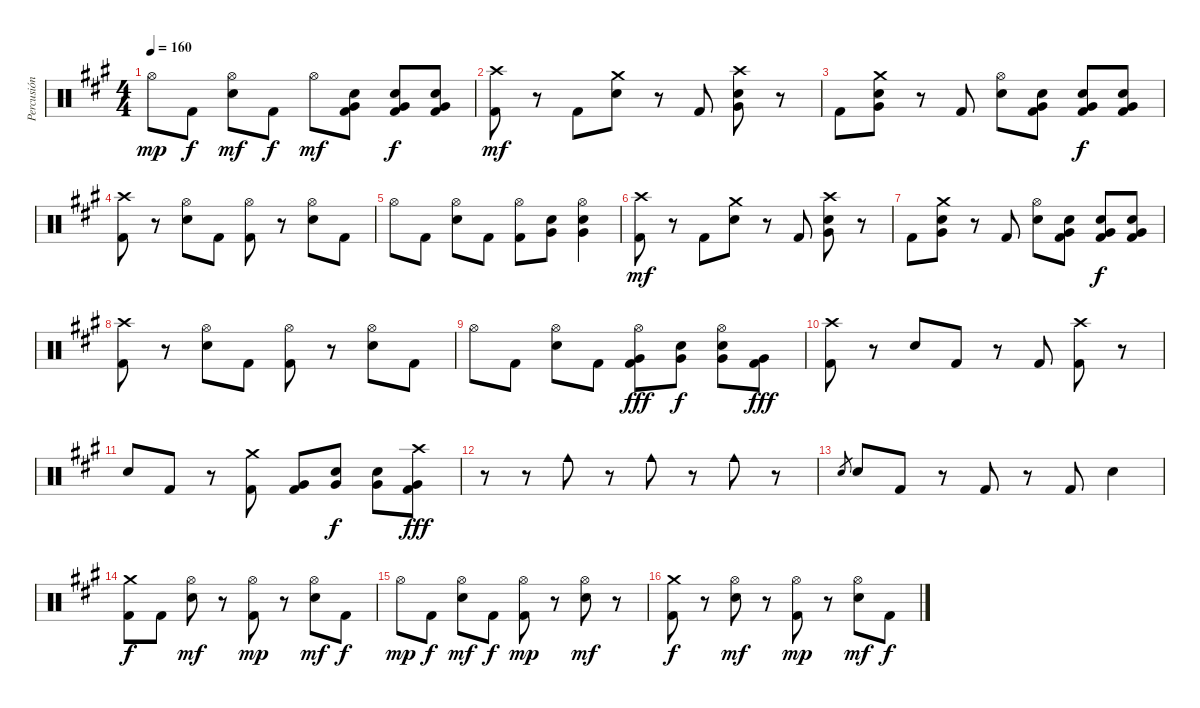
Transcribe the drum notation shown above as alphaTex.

\track ("Percusión" "Percusión") {instrument percussion}
\staff {score}
\articulation defaults
\ts (4 4)
\tempo 160
\clef neutral
\ks a "Hi-Hat (open)".8{dy mp} "Kick (hit) 2".8{dy f}
("Hi-Hat (open)" "Electric Snare (hit)").8{dy mf} "Kick (hit) 2".8{dy f} "Hi-Hat (open)".8{dy mf} ("Very Low Tom (hit)" "Electric Snare (hit)" "Kick (hit) 2").8 ("Very Low Tom (hit)" "Electric Snare (hit)" "Kick (hit) 2").8{dy f} ("Very Low Tom (hit)" "Electric Snare (hit)" "Kick (hit) 2").8 |
("Crash high (hit)" "Kick (hit) 2").8{dy mf} r.8 "Kick (hit) 2".8 ("Crash medium (hit)" "Electric Snare (hit)").8 r.8 "Kick (hit) 2".8 ("Crash high (hit)" "Very Low Tom (hit)" "Electric Snare (hit)").8 r.8 |
"Kick (hit) 2".8 ("Crash medium (hit)" "Very Low Tom (hit)" "Electric Snare (hit)").8 r.8 "Kick (hit) 2".8 ("Hi-Hat (open)" "Electric Snare (hit)").8 ("Very Low Tom (hit)" "Electric Snare (hit)" "Kick (hit) 2").8 ("Very Low Tom (hit)" "Electric Snare (hit)" "Kick (hit) 2").8{dy f} ("Very Low Tom (hit)" "Electric Snare (hit)" "Kick (hit) 2").8 |
("Crash high (hit)" "Kick (hit) 2").8 r.8 ("Hi-Hat (open)" "Electric Snare (hit)").8 "Kick (hit) 2".8 ("Hi-Hat (open)" "Kick (hit) 2").8 r.8 ("Hi-Hat (open)" "Electric Snare (hit)").8 "Kick (hit) 2".8 |
"Hi-Hat (open)".8 "Kick (hit) 2".8 ("Hi-Hat (open)" "Electric Snare (hit)").8 "Kick (hit) 2".8 ("Hi-Hat (open)" "Kick (hit) 2").8 ("Very Low Tom (hit)" "Electric Snare (hit)").8 ("Very Low Tom (hit)" "Hi-Hat (open)" "Electric Snare (hit)").4 |
("Crash high (hit)" "Kick (hit) 2").8{dy mf} r.8 "Kick (hit) 2".8 ("Crash medium (hit)" "Electric Snare (hit)").8 r.8 "Kick (hit) 2".8 ("Crash high (hit)" "Very Low Tom (hit)" "Electric Snare (hit)").8 r.8 |
"Kick (hit) 2".8 ("Crash medium (hit)" "Very Low Tom (hit)" "Electric Snare (hit)").8 r.8 "Kick (hit) 2".8 ("Hi-Hat (open)" "Electric Snare (hit)").8 ("Very Low Tom (hit)" "Electric Snare (hit)" "Kick (hit) 2").8 ("Very Low Tom (hit)" "Electric Snare (hit)" "Kick (hit) 2").8{dy f} ("Very Low Tom (hit)" "Electric Snare (hit)" "Kick (hit) 2").8 |
("Crash high (hit)" "Kick (hit) 2").8 r.8 ("Hi-Hat (open)" "Electric Snare (hit)").8 "Kick (hit) 2".8 ("Hi-Hat (open)" "Kick (hit) 2").8 r.8 ("Hi-Hat (open)" "Electric Snare (hit)").8 "Kick (hit) 2".8 |
"Hi-Hat (open)".8 "Kick (hit) 2".8 ("Hi-Hat (open)" "Electric Snare (hit)").8 "Kick (hit) 2".8 ("Very Low Tom (hit)" "Hi-Hat (open)" "Kick (hit) 2").8{dy fff} ("Very Low Tom (hit)" "Electric Snare (hit)").8{dy f} ("Very Low Tom (hit)" "Hi-Hat (open)" "Electric Snare (hit)").8 ("Very Low Tom (hit)" "Kick (hit) 2").8{dy fff} |
("Crash high (hit)" "Kick (hit) 2").8 r.8 "Electric Snare (hit)".8 "Kick (hit) 2".8 r.8 "Kick (hit) 2".8 ("Crash high (hit)" "Kick (hit) 2").8 r.8 |
"Electric Snare (hit)".8 "Kick (hit) 2".8 r.8 ("Crash medium (hit)" "Kick (hit) 2").8 ("Very Low Tom (hit)" "Kick (hit) 2").8 ("Very Low Tom (hit)" "Electric Snare (hit)").8{dy f} ("Very Low Tom (hit)" "Electric Snare (hit)").8 ("Crash high (hit)" "Very Low Tom (hit)" "Kick (hit) 2").8{dy fff} |
r.8 r.8 "Cowbell medium (hit)".8 r.8 "Cowbell medium (hit)".8 r.8 "Cowbell medium (hit)".8 r.8 |
"Electric Snare (hit)".8{gr} "Electric Snare (hit)".8 "Kick (hit) 2".8 r.8 "Kick (hit) 2".8 r.8 "Kick (hit) 2".8 "Electric Snare (hit)".4 |
("Crash medium (hit)" "Kick (hit) 2").8{dy f} "Kick (hit) 2".8 ("Hi-Hat (open)" "Electric Snare (hit)").8{dy mf} r.8 ("Hi-Hat (open)" "Kick (hit) 2").8{dy mp} r.8 ("Hi-Hat (open)" "Electric Snare (hit)").8{dy mf} "Kick (hit) 2".8{dy f} |
"Hi-Hat (open)".8{dy mp} "Kick (hit) 2".8{dy f} ("Hi-Hat (open)" "Electric Snare (hit)").8{dy mf} "Kick (hit) 2".8{dy f} ("Hi-Hat (open)" "Kick (hit) 2").8{dy mp} r.8 ("Hi-Hat (open)" "Electric Snare (hit)").8{dy mf} r.8 |
("Crash medium (hit)" "Kick (hit) 2").8{dy f} r.8 ("Hi-Hat (open)" "Electric Snare (hit)").8{dy mf} r.8 ("Hi-Hat (open)" "Kick (hit) 2").8{dy mp} r.8 ("Hi-Hat (open)" "Electric Snare (hit)").8{dy mf} "Kick (hit) 2".8{dy f}
